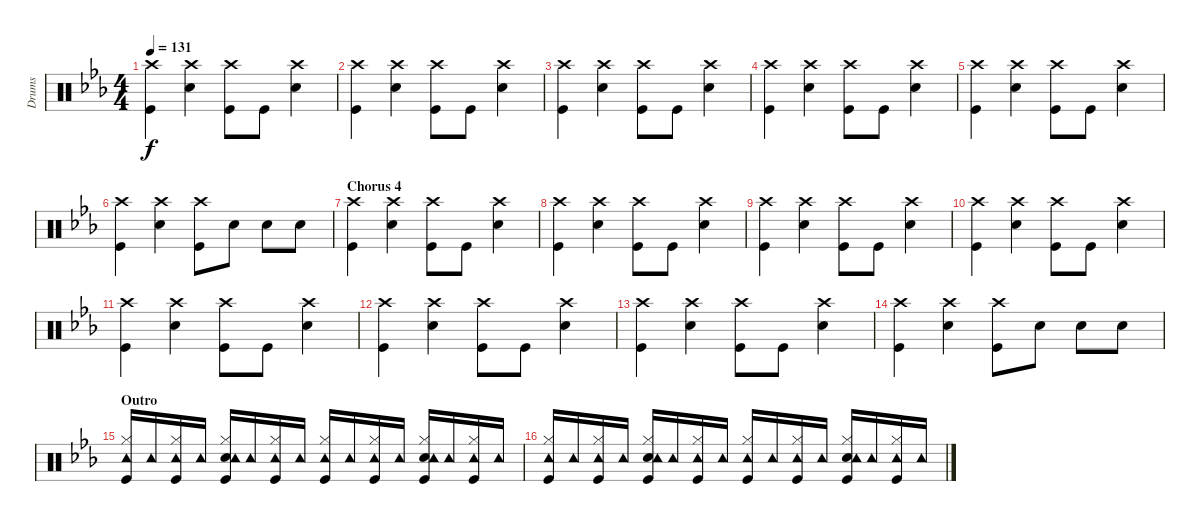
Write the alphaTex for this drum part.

\track ("Drums" "Drums") {instrument percussion}
\staff {score}
\articulation defaults
\ts (4 4)
\tempo 131
\clef neutral
\ks eb
("Kick (hit)" "Crash high (hit)").4{dy f} ("Snare (hit) 2" "Crash high (hit)").4 ("Kick (hit)" "Crash high (hit)").8 "Kick (hit)".8 ("Snare (hit) 2" "Crash high (hit)").4 |
("Kick (hit)" "Crash high (hit)").4 ("Snare (hit) 2" "Crash high (hit)").4 ("Kick (hit)" "Crash high (hit)").8 "Kick (hit)".8 ("Snare (hit) 2" "Crash high (hit)").4 |
("Kick (hit)" "Crash high (hit)").4 ("Snare (hit) 2" "Crash high (hit)").4 ("Kick (hit)" "Crash high (hit)").8 "Kick (hit)".8 ("Snare (hit) 2" "Crash high (hit)").4 |
("Kick (hit)" "Crash high (hit)").4 ("Snare (hit) 2" "Crash high (hit)").4 ("Kick (hit)" "Crash high (hit)").8 "Kick (hit)".8 ("Snare (hit) 2" "Crash high (hit)").4 |
("Kick (hit)" "Crash high (hit)").4 ("Snare (hit) 2" "Crash high (hit)").4 ("Kick (hit)" "Crash high (hit)").8 "Kick (hit)".8 ("Snare (hit) 2" "Crash high (hit)").4 |
("Kick (hit)" "Crash high (hit)").4 ("Snare (hit) 2" "Crash high (hit)").4 ("Kick (hit)" "Crash high (hit)").8 "Snare (hit) 2".8 "Snare (hit) 2".8 "Snare (hit) 2".8 |
\section ("" "Chorus 4")
("Kick (hit)" "Crash high (hit)").4 ("Snare (hit) 2" "Crash high (hit)").4 ("Kick (hit)" "Crash high (hit)").8 "Kick (hit)".8 ("Snare (hit) 2" "Crash high (hit)").4 |
("Kick (hit)" "Crash high (hit)").4 ("Snare (hit) 2" "Crash high (hit)").4 ("Kick (hit)" "Crash high (hit)").8 "Kick (hit)".8 ("Snare (hit) 2" "Crash high (hit)").4 |
("Kick (hit)" "Crash high (hit)").4 ("Snare (hit) 2" "Crash high (hit)").4 ("Kick (hit)" "Crash high (hit)").8 "Kick (hit)".8 ("Snare (hit) 2" "Crash high (hit)").4 |
("Kick (hit)" "Crash high (hit)").4 ("Snare (hit) 2" "Crash high (hit)").4 ("Kick (hit)" "Crash high (hit)").8 "Kick (hit)".8 ("Snare (hit) 2" "Crash high (hit)").4 |
("Kick (hit)" "Crash high (hit)").4 ("Snare (hit) 2" "Crash high (hit)").4 ("Kick (hit)" "Crash high (hit)").8 "Kick (hit)".8 ("Snare (hit) 2" "Crash high (hit)").4 |
("Kick (hit)" "Crash high (hit)").4 ("Snare (hit) 2" "Crash high (hit)").4 ("Kick (hit)" "Crash high (hit)").8 "Kick (hit)".8 ("Snare (hit) 2" "Crash high (hit)").4 |
("Kick (hit)" "Crash high (hit)").4 ("Snare (hit) 2" "Crash high (hit)").4 ("Kick (hit)" "Crash high (hit)").8 "Kick (hit)".8 ("Snare (hit) 2" "Crash high (hit)").4 |
("Kick (hit)" "Crash high (hit)").4 ("Snare (hit) 2" "Crash high (hit)").4 ("Kick (hit)" "Crash high (hit)").8 "Snare (hit) 2".8 "Snare (hit) 2".8 "Snare (hit) 2".8 |
\section ("" "Outro")
("Kick (hit)" "Hi-Hat (closed)" "Tambourine (hit)").16 "Tambourine (hit)".16 ("Kick (hit)" "Hi-Hat (closed)" "Tambourine (hit)").16 "Tambourine (hit)".16 ("Kick (hit)" "Snare (hit) 2" "Hi-Hat (closed)" "Tambourine (hit)").16 "Tambourine (hit)".16 ("Kick (hit)" "Hi-Hat (closed)" "Tambourine (hit)").16 "Tambourine (hit)".16 ("Kick (hit)" "Hi-Hat (closed)" "Tambourine (hit)").16 "Tambourine (hit)".16 ("Kick (hit)" "Hi-Hat (closed)" "Tambourine (hit)").16 "Tambourine (hit)".16 ("Kick (hit)" "Snare (hit) 2" "Hi-Hat (closed)" "Tambourine (hit)").16 "Tambourine (hit)".16 ("Kick (hit)" "Hi-Hat (closed)" "Tambourine (hit)").16 "Tambourine (hit)".16 |
("Kick (hit)" "Hi-Hat (closed)" "Tambourine (hit)").16 "Tambourine (hit)".16 ("Kick (hit)" "Hi-Hat (closed)" "Tambourine (hit)").16 "Tambourine (hit)".16 ("Kick (hit)" "Snare (hit) 2" "Hi-Hat (closed)" "Tambourine (hit)").16 "Tambourine (hit)".16 ("Kick (hit)" "Hi-Hat (closed)" "Tambourine (hit)").16 "Tambourine (hit)".16 ("Kick (hit)" "Hi-Hat (closed)" "Tambourine (hit)").16 "Tambourine (hit)".16 ("Kick (hit)" "Hi-Hat (closed)" "Tambourine (hit)").16 "Tambourine (hit)".16 ("Kick (hit)" "Snare (hit) 2" "Hi-Hat (closed)" "Tambourine (hit)").16 "Tambourine (hit)".16 ("Kick (hit)" "Hi-Hat (closed)" "Tambourine (hit)").16 "Tambourine (hit)".16
